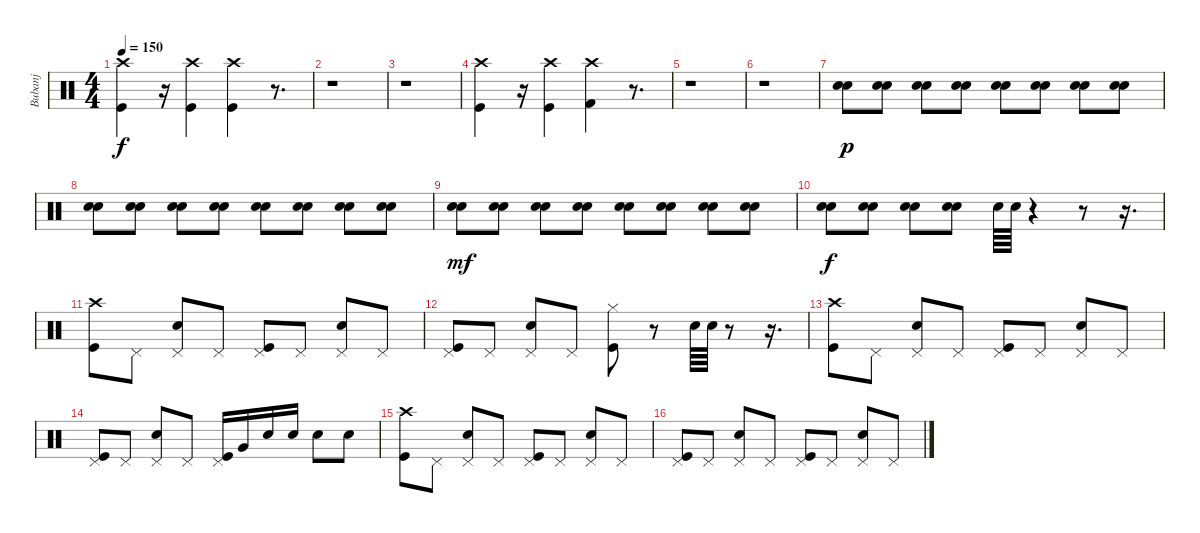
\track ("Bubanj" "Bubanj") {instrument percussion}
\staff {score}
\articulation defaults
\ts (4 4)
\tempo 150
\clef neutral
\ks c
("Crash high (hit)" "Kick (hit)").4{dy f} r.16 ("Crash high (hit)" "Kick (hit)").4 ("Crash high (hit)" "Kick (hit)").4 r.8{d} |
r.1 |
r.1 |
("Crash high (hit)" "Kick (hit)").4 r.16 ("Crash high (hit)" "Kick (hit)").4 ("Crash high (hit)" "Kick (hit) 2").4 r.8{d} |
r.1 |
r.1 |
("Electric Snare (hit)" "Electric Snare (hit)").8{dy p} ("Electric Snare (hit)" "Electric Snare (hit)").8 ("Electric Snare (hit)" "Electric Snare (hit)").8 ("Electric Snare (hit)" "Electric Snare (hit)").8 ("Electric Snare (hit)" "Electric Snare (hit)").8 ("Electric Snare (hit)" "Electric Snare (hit)").8 ("Electric Snare (hit)" "Electric Snare (hit)").8 ("Electric Snare (hit)" "Electric Snare (hit)").8 |
("Electric Snare (hit)" "Electric Snare (hit)").8 ("Electric Snare (hit)" "Electric Snare (hit)").8 ("Electric Snare (hit)" "Electric Snare (hit)").8 ("Electric Snare (hit)" "Electric Snare (hit)").8 ("Electric Snare (hit)" "Electric Snare (hit)").8 ("Electric Snare (hit)" "Electric Snare (hit)").8 ("Electric Snare (hit)" "Electric Snare (hit)").8 ("Electric Snare (hit)" "Electric Snare (hit)").8 |
("Electric Snare (hit)" "Electric Snare (hit)").8{dy mf} ("Electric Snare (hit)" "Electric Snare (hit)").8 ("Electric Snare (hit)" "Electric Snare (hit)").8 ("Electric Snare (hit)" "Electric Snare (hit)").8 ("Electric Snare (hit)" "Electric Snare (hit)").8 ("Electric Snare (hit)" "Electric Snare (hit)").8 ("Electric Snare (hit)" "Electric Snare (hit)").8 ("Electric Snare (hit)" "Electric Snare (hit)").8 |
("Electric Snare (hit)" "Electric Snare (hit)").8{dy f} ("Electric Snare (hit)" "Electric Snare (hit)").8 ("Electric Snare (hit)" "Electric Snare (hit)").8 ("Electric Snare (hit)" "Electric Snare (hit)").8 "Electric Snare (hit)".64 "Electric Snare (hit)".64 r.4 r.8 r.16{d} |
("Crash high (hit)" "Kick (hit)").8 "Pedal Hi-Hat (hit)".8 ("Pedal Hi-Hat (hit)" "Electric Snare (hit)").8 "Pedal Hi-Hat (hit)".8 ("Pedal Hi-Hat (hit)" "Kick (hit)").8 "Pedal Hi-Hat (hit)".8 ("Pedal Hi-Hat (hit)" "Electric Snare (hit)").8 "Pedal Hi-Hat (hit)".8 |
("Pedal Hi-Hat (hit)" "Kick (hit)").8 "Pedal Hi-Hat (hit)".8 ("Pedal Hi-Hat (hit)" "Electric Snare (hit)").8 "Pedal Hi-Hat (hit)".8 ("Hi-Hat (closed)" "Kick (hit)").8 r.8 "Electric Snare (hit)".64 "Electric Snare (hit)".64 r.8 r.16{d} |
("Crash high (hit)" "Kick (hit)").8 "Pedal Hi-Hat (hit)".8 ("Pedal Hi-Hat (hit)" "Electric Snare (hit)").8 "Pedal Hi-Hat (hit)".8 ("Pedal Hi-Hat (hit)" "Kick (hit)").8 "Pedal Hi-Hat (hit)".8 ("Pedal Hi-Hat (hit)" "Electric Snare (hit)").8 "Pedal Hi-Hat (hit)".8 |
("Pedal Hi-Hat (hit)" "Kick (hit)").8 "Pedal Hi-Hat (hit)".8 ("Pedal Hi-Hat (hit)" "Electric Snare (hit)").8 "Pedal Hi-Hat (hit)".8 ("Pedal Hi-Hat (hit)" "Kick (hit)").16 "Very Low Tom (hit)".16 "Electric Snare (hit)".16 "Electric Snare (hit)".16 "Electric Snare (hit)".8 "Electric Snare (hit)".8 |
("Crash high (hit)" "Kick (hit)").8 "Pedal Hi-Hat (hit)".8 ("Pedal Hi-Hat (hit)" "Electric Snare (hit)").8 "Pedal Hi-Hat (hit)".8 ("Pedal Hi-Hat (hit)" "Kick (hit)").8 "Pedal Hi-Hat (hit)".8 ("Pedal Hi-Hat (hit)" "Electric Snare (hit)").8 "Pedal Hi-Hat (hit)".8 |
("Pedal Hi-Hat (hit)" "Kick (hit)").8 "Pedal Hi-Hat (hit)".8 ("Pedal Hi-Hat (hit)" "Electric Snare (hit)").8 "Pedal Hi-Hat (hit)".8 ("Pedal Hi-Hat (hit)" "Kick (hit)").8 "Pedal Hi-Hat (hit)".8 ("Pedal Hi-Hat (hit)" "Electric Snare (hit)").8 "Pedal Hi-Hat (hit)".8
